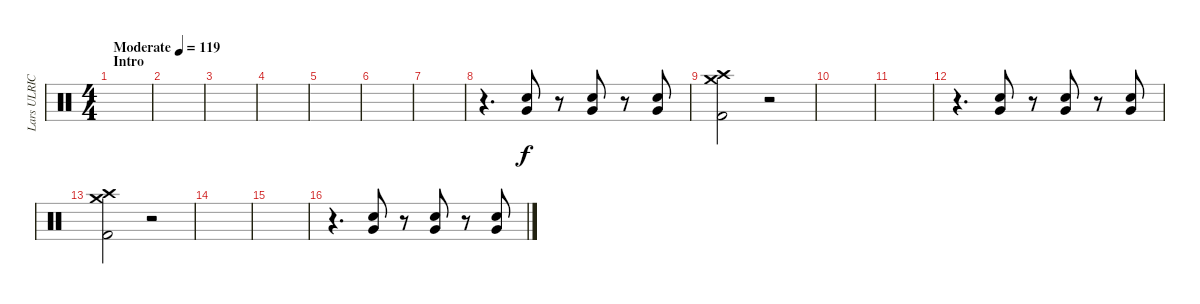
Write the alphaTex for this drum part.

\track ("Lars ULRICH" "Lars ULRIC") {instrument percussion}
\staff {score}
\articulation defaults
\ts (4 4)
\section ("" "Intro")
\tempo (119 "Moderate")
\clef neutral
\ks c
|
|
|
|
|
|
|
r.4{d} ("Snare (hit) 2" "Very Low Tom (hit)").8 r.8 ("Snare (hit) 2" "Very Low Tom (hit)").8 r.8 ("Snare (hit) 2" "Very Low Tom (hit)").8 |
("Crash high (hit)" "Crash medium (hit)" "Kick (hit) 2").2 r.2 |
|
|
r.4{d} ("Snare (hit) 2" "Very Low Tom (hit)").8 r.8 ("Snare (hit) 2" "Very Low Tom (hit)").8 r.8 ("Snare (hit) 2" "Very Low Tom (hit)").8 |
("Crash high (hit)" "Crash medium (hit)" "Kick (hit) 2").2 r.2 |
|
|
r.4{d} ("Snare (hit) 2" "Very Low Tom (hit)").8 r.8 ("Snare (hit) 2" "Very Low Tom (hit)").8 r.8 ("Snare (hit) 2" "Very Low Tom (hit)").8
